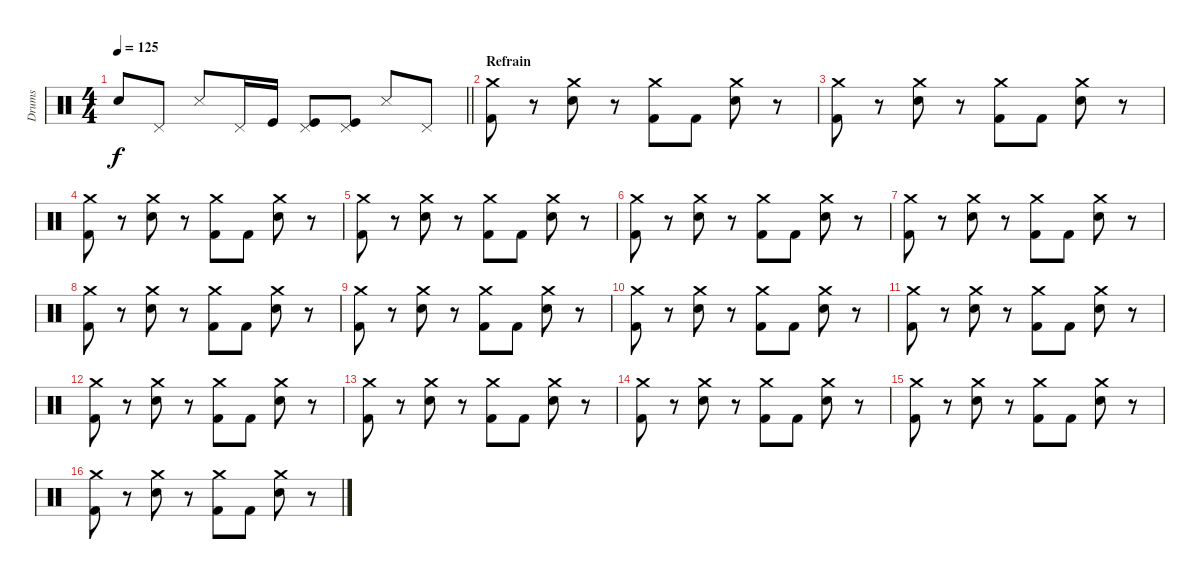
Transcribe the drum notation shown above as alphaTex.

\track ("Drums" "Drums") {instrument percussion}
\staff {score}
\articulation defaults
\ts (4 4)
\tempo 125
\clef neutral
\barLineRight lightlight
\ks c "Electric Snare (hit)".8{dy f} "Pedal Hi-Hat (hit)".8 "Snare (side stick) 3".8 "Pedal Hi-Hat (hit)".16 "Kick (hit)".16
("Pedal Hi-Hat (hit)" "Kick (hit)").8 ("Pedal Hi-Hat (hit)" "Kick (hit)").8 "Snare (side stick) 3".8 "Pedal Hi-Hat (hit)".8 |
\section ("" "Refrain")
("Crash medium (hit)" "Kick (hit) 2").8 r.8 ("Crash medium (hit)" "Electric Snare (hit)").8 r.8 ("Crash medium (hit)" "Kick (hit) 2").8 "Kick (hit) 2".8 ("Crash medium (hit)" "Electric Snare (hit)").8 r.8 |
("Crash medium (hit)" "Kick (hit) 2").8 r.8 ("Crash medium (hit)" "Electric Snare (hit)").8 r.8 ("Crash medium (hit)" "Kick (hit) 2").8 "Kick (hit) 2".8 ("Crash medium (hit)" "Electric Snare (hit)").8 r.8 |
("Crash medium (hit)" "Kick (hit) 2").8 r.8 ("Crash medium (hit)" "Electric Snare (hit)").8 r.8 ("Crash medium (hit)" "Kick (hit) 2").8 "Kick (hit) 2".8 ("Crash medium (hit)" "Electric Snare (hit)").8 r.8 |
("Crash medium (hit)" "Kick (hit) 2").8 r.8 ("Crash medium (hit)" "Electric Snare (hit)").8 r.8 ("Crash medium (hit)" "Kick (hit) 2").8 "Kick (hit) 2".8 ("Crash medium (hit)" "Electric Snare (hit)").8 r.8 |
("Crash medium (hit)" "Kick (hit) 2").8 r.8 ("Crash medium (hit)" "Electric Snare (hit)").8 r.8 ("Crash medium (hit)" "Kick (hit) 2").8 "Kick (hit) 2".8 ("Crash medium (hit)" "Electric Snare (hit)").8 r.8 |
("Crash medium (hit)" "Kick (hit) 2").8 r.8 ("Crash medium (hit)" "Electric Snare (hit)").8 r.8 ("Crash medium (hit)" "Kick (hit) 2").8 "Kick (hit) 2".8 ("Crash medium (hit)" "Electric Snare (hit)").8 r.8 |
("Crash medium (hit)" "Kick (hit) 2").8 r.8 ("Crash medium (hit)" "Electric Snare (hit)").8 r.8 ("Crash medium (hit)" "Kick (hit) 2").8 "Kick (hit) 2".8 ("Crash medium (hit)" "Electric Snare (hit)").8 r.8 |
("Crash medium (hit)" "Kick (hit) 2").8 r.8 ("Crash medium (hit)" "Electric Snare (hit)").8 r.8 ("Crash medium (hit)" "Kick (hit) 2").8 "Kick (hit) 2".8 ("Crash medium (hit)" "Electric Snare (hit)").8 r.8 |
("Crash medium (hit)" "Kick (hit) 2").8 r.8 ("Crash medium (hit)" "Electric Snare (hit)").8 r.8 ("Crash medium (hit)" "Kick (hit) 2").8 "Kick (hit) 2".8 ("Crash medium (hit)" "Electric Snare (hit)").8 r.8 |
("Crash medium (hit)" "Kick (hit) 2").8 r.8 ("Crash medium (hit)" "Electric Snare (hit)").8 r.8 ("Crash medium (hit)" "Kick (hit) 2").8 "Kick (hit) 2".8 ("Crash medium (hit)" "Electric Snare (hit)").8 r.8 |
("Crash medium (hit)" "Kick (hit) 2").8 r.8 ("Crash medium (hit)" "Electric Snare (hit)").8 r.8 ("Crash medium (hit)" "Kick (hit) 2").8 "Kick (hit) 2".8 ("Crash medium (hit)" "Electric Snare (hit)").8 r.8 |
("Crash medium (hit)" "Kick (hit) 2").8 r.8 ("Crash medium (hit)" "Electric Snare (hit)").8 r.8 ("Crash medium (hit)" "Kick (hit) 2").8 "Kick (hit) 2".8 ("Crash medium (hit)" "Electric Snare (hit)").8 r.8 |
("Crash medium (hit)" "Kick (hit) 2").8 r.8 ("Crash medium (hit)" "Electric Snare (hit)").8 r.8 ("Crash medium (hit)" "Kick (hit) 2").8 "Kick (hit) 2".8 ("Crash medium (hit)" "Electric Snare (hit)").8 r.8 |
("Crash medium (hit)" "Kick (hit) 2").8 r.8 ("Crash medium (hit)" "Electric Snare (hit)").8 r.8 ("Crash medium (hit)" "Kick (hit) 2").8 "Kick (hit) 2".8 ("Crash medium (hit)" "Electric Snare (hit)").8 r.8 |
("Crash medium (hit)" "Kick (hit) 2").8 r.8 ("Crash medium (hit)" "Electric Snare (hit)").8 r.8 ("Crash medium (hit)" "Kick (hit) 2").8 "Kick (hit) 2".8 ("Crash medium (hit)" "Electric Snare (hit)").8 r.8
